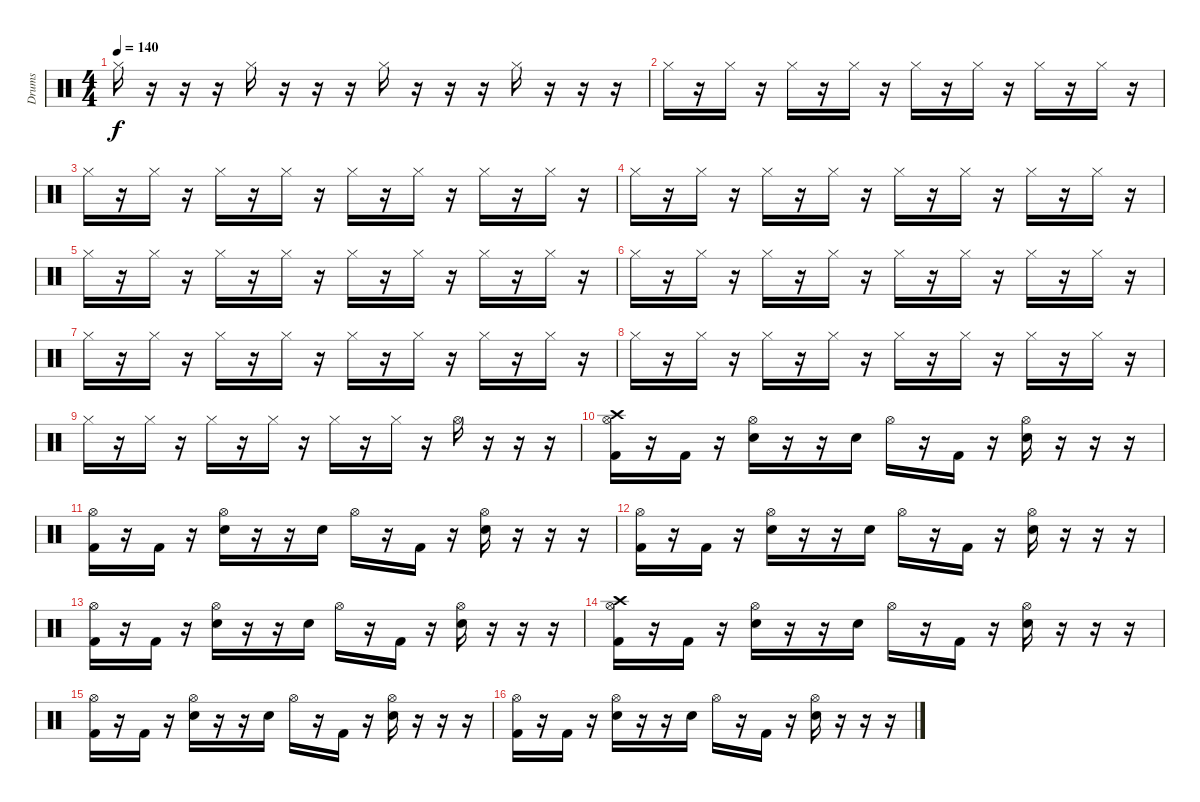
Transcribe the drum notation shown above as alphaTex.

\track ("Drums" "Drums") {instrument percussion}
\staff {score}
\articulation defaults
\ts (4 4)
\tempo 140
\clef neutral
\ks c "Hi-Hat (closed)".16{dy f}
r.16 r.16 r.16 "Hi-Hat (closed)".16 r.16 r.16 r.16 "Hi-Hat (closed)".16 r.16 r.16 r.16 "Hi-Hat (closed)".16 r.16 r.16 r.16 |
"Hi-Hat (closed)".16 r.16 "Hi-Hat (closed)".16 r.16 "Hi-Hat (closed)".16 r.16 "Hi-Hat (closed)".16 r.16 "Hi-Hat (closed)".16 r.16 "Hi-Hat (closed)".16 r.16 "Hi-Hat (closed)".16 r.16 "Hi-Hat (closed)".16 r.16 |
"Hi-Hat (closed)".16 r.16 "Hi-Hat (closed)".16 r.16 "Hi-Hat (closed)".16 r.16 "Hi-Hat (closed)".16 r.16 "Hi-Hat (closed)".16 r.16 "Hi-Hat (closed)".16 r.16 "Hi-Hat (closed)".16 r.16 "Hi-Hat (closed)".16 r.16 |
"Hi-Hat (closed)".16 r.16 "Hi-Hat (closed)".16 r.16 "Hi-Hat (closed)".16 r.16 "Hi-Hat (closed)".16 r.16 "Hi-Hat (closed)".16 r.16 "Hi-Hat (closed)".16 r.16 "Hi-Hat (closed)".16 r.16 "Hi-Hat (closed)".16 r.16 |
"Hi-Hat (closed)".16 r.16 "Hi-Hat (closed)".16 r.16 "Hi-Hat (closed)".16 r.16 "Hi-Hat (closed)".16 r.16 "Hi-Hat (closed)".16 r.16 "Hi-Hat (closed)".16 r.16 "Hi-Hat (closed)".16 r.16 "Hi-Hat (closed)".16 r.16 |
"Hi-Hat (closed)".16 r.16 "Hi-Hat (closed)".16 r.16 "Hi-Hat (closed)".16 r.16 "Hi-Hat (closed)".16 r.16 "Hi-Hat (closed)".16 r.16 "Hi-Hat (closed)".16 r.16 "Hi-Hat (closed)".16 r.16 "Hi-Hat (closed)".16 r.16 |
"Hi-Hat (closed)".16 r.16 "Hi-Hat (closed)".16 r.16 "Hi-Hat (closed)".16 r.16 "Hi-Hat (closed)".16 r.16 "Hi-Hat (closed)".16 r.16 "Hi-Hat (closed)".16 r.16 "Hi-Hat (closed)".16 r.16 "Hi-Hat (closed)".16 r.16 |
"Hi-Hat (closed)".16 r.16 "Hi-Hat (closed)".16 r.16 "Hi-Hat (closed)".16 r.16 "Hi-Hat (closed)".16 r.16 "Hi-Hat (closed)".16 r.16 "Hi-Hat (closed)".16 r.16 "Hi-Hat (closed)".16 r.16 "Hi-Hat (closed)".16 r.16 |
"Hi-Hat (closed)".16 r.16 "Hi-Hat (closed)".16 r.16 "Hi-Hat (closed)".16 r.16 "Hi-Hat (closed)".16 r.16 "Hi-Hat (closed)".16 r.16 "Hi-Hat (closed)".16 r.16 "Hi-Hat (open)".16 r.16 r.16 r.16 |
("Kick (hit) 2" "Crash high (hit)" "Hi-Hat (open)").16 r.16 "Kick (hit) 2".16 r.16 ("Electric Snare (hit)" "Hi-Hat (open)").16 r.16 r.16 "Electric Snare (hit)".16 "Hi-Hat (open)".16 r.16 "Kick (hit) 2".16 r.16 ("Electric Snare (hit)" "Hi-Hat (open)").16 r.16 r.16 r.16 |
("Kick (hit) 2" "Hi-Hat (open)").16 r.16 "Kick (hit) 2".16 r.16 ("Electric Snare (hit)" "Hi-Hat (open)").16 r.16 r.16 "Electric Snare (hit)".16 "Hi-Hat (open)".16 r.16 "Kick (hit) 2".16 r.16 ("Electric Snare (hit)" "Hi-Hat (open)").16 r.16 r.16 r.16 |
("Kick (hit) 2" "Hi-Hat (open)").16 r.16 "Kick (hit) 2".16 r.16 ("Electric Snare (hit)" "Hi-Hat (open)").16 r.16 r.16 "Electric Snare (hit)".16 "Hi-Hat (open)".16 r.16 "Kick (hit) 2".16 r.16 ("Electric Snare (hit)" "Hi-Hat (open)").16 r.16 r.16 r.16 |
("Kick (hit) 2" "Hi-Hat (open)").16 r.16 "Kick (hit) 2".16 r.16 ("Electric Snare (hit)" "Hi-Hat (open)").16 r.16 r.16 "Electric Snare (hit)".16 "Hi-Hat (open)".16 r.16 "Kick (hit) 2".16 r.16 ("Electric Snare (hit)" "Hi-Hat (open)").16 r.16 r.16 r.16 |
("Kick (hit) 2" "Crash high (hit)" "Hi-Hat (open)").16 r.16 "Kick (hit) 2".16 r.16 ("Electric Snare (hit)" "Hi-Hat (open)").16 r.16 r.16 "Electric Snare (hit)".16 "Hi-Hat (open)".16 r.16 "Kick (hit) 2".16 r.16 ("Electric Snare (hit)" "Hi-Hat (open)").16 r.16 r.16 r.16 |
("Kick (hit) 2" "Hi-Hat (open)").16 r.16 "Kick (hit) 2".16 r.16 ("Electric Snare (hit)" "Hi-Hat (open)").16 r.16 r.16 "Electric Snare (hit)".16 "Hi-Hat (open)".16 r.16 "Kick (hit) 2".16 r.16 ("Electric Snare (hit)" "Hi-Hat (open)").16 r.16 r.16 r.16 |
("Kick (hit) 2" "Hi-Hat (open)").16 r.16 "Kick (hit) 2".16 r.16 ("Electric Snare (hit)" "Hi-Hat (open)").16 r.16 r.16 "Electric Snare (hit)".16 "Hi-Hat (open)".16 r.16 "Kick (hit) 2".16 r.16 ("Electric Snare (hit)" "Hi-Hat (open)").16 r.16 r.16 r.16
